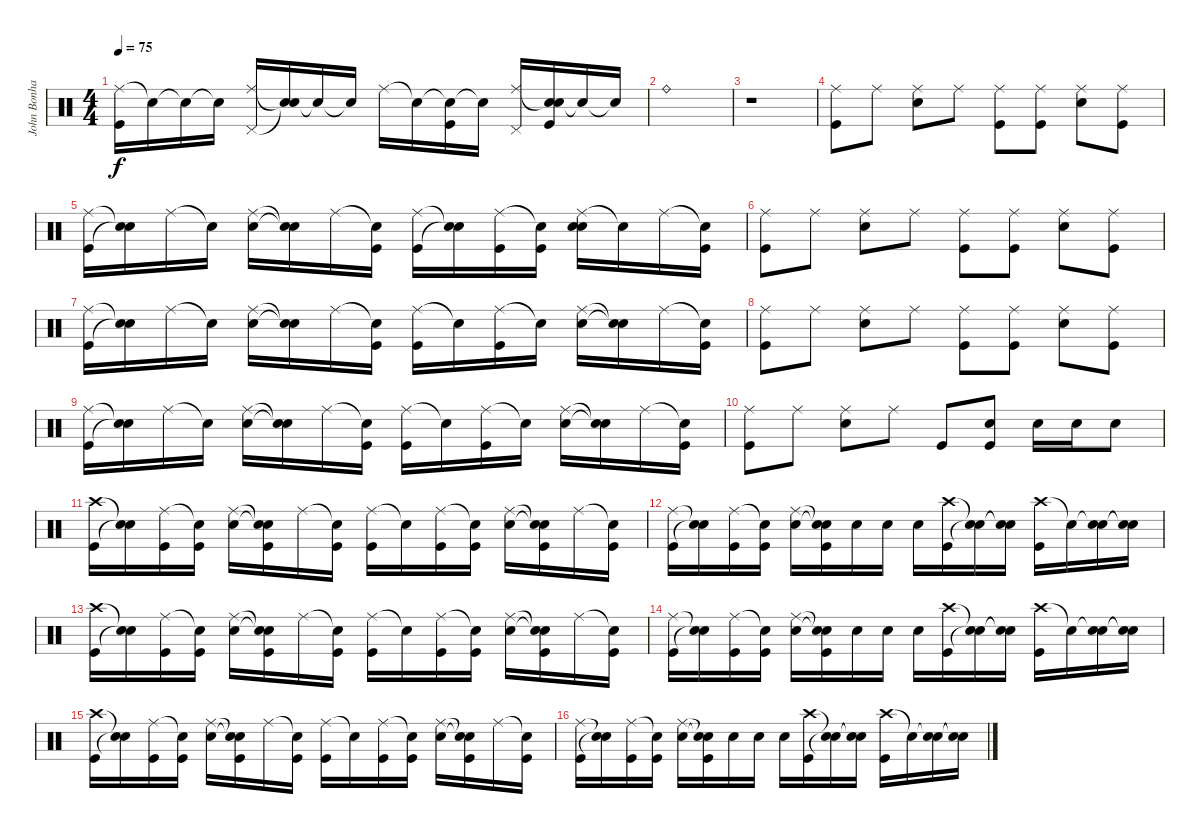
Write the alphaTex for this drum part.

\track ("John Bonham (Drums)" "John Bonha") {instrument percussion}
\staff {score}
\articulation defaults
\ts (4 4)
\tempo 75
\clef neutral
\ks c
("Ride (middle)" "Kick (hit)").16{dy f} "Snare (hit)"{t}.16 "Snare (hit)"{t}.16 "Snare (hit)"{t}.16 ("Ride (middle)" "Pedal Hi-Hat (hit)").16 ("Snare (hit)"{t} "Snare (hit)"{t}).16 "Snare (hit)"{t}.16 "Snare (hit)"{t}.16 "Ride (middle)".16 "Snare (hit)"{t}.16 ("Snare (hit)"{t} "Kick (hit)").16 "Snare (hit)"{t}.16 ("Ride (middle)" "Pedal Hi-Hat (hit)").16 ("Snare (hit)"{t} "Kick (hit)" "Snare (hit)").16 "Snare (hit)"{t}.16 "Snare (hit)"{t}.16 |
"Ride (bell)".1 |
r.1 |
("Ride (middle)" "Kick (hit)").8 "Ride (middle)".8 ("Ride (middle)" "Snare (hit) 2").8 "Ride (middle)".8 ("Ride (middle)" "Kick (hit)").8 ("Ride (middle)" "Kick (hit)").8 ("Ride (middle)" "Snare (hit) 2").8 ("Ride (middle)" "Kick (hit)").8 |
("Ride (middle)" "Kick (hit)").16 ("Snare (hit)"{t} "Snare (hit)"{t}).16 "Ride (middle)".16 "Snare (hit)"{t}.16 ("Ride (middle)" "Snare (hit) 2").16 ("Snare (hit)"{t} "Snare (hit)"{t}).16 "Ride (middle)".16 ("Snare (hit)"{t} "Kick (hit)").16 ("Ride (middle)" "Kick (hit)").16 ("Snare (hit)"{t} "Snare (hit)"{t}).16 ("Ride (middle)" "Kick (hit)").16 ("Snare (hit)"{t} "Kick (hit)").16 ("Ride (middle)" "Snare (hit) 2" "Snare (hit)").16 "Snare (hit)"{t}.16 "Ride (middle)".16 ("Snare (hit)"{t} "Kick (hit)").16 |
("Ride (middle)" "Kick (hit)").8 "Ride (middle)".8 ("Ride (middle)" "Snare (hit) 2").8 "Ride (middle)".8 ("Ride (middle)" "Kick (hit)").8 ("Ride (middle)" "Kick (hit)").8 ("Ride (middle)" "Snare (hit) 2").8 ("Ride (middle)" "Kick (hit)").8 |
("Ride (middle)" "Kick (hit)").16 ("Snare (hit)"{t} "Snare (hit)"{t}).16 "Ride (middle)".16 "Snare (hit)"{t}.16 ("Ride (middle)" "Snare (hit) 2").16 ("Snare (hit)"{t} "Snare (hit)"{t}).16 "Ride (middle)".16 ("Snare (hit)"{t} "Kick (hit)").16 ("Ride (middle)" "Kick (hit)").16 "Snare (hit)"{t}.16 ("Ride (middle)" "Kick (hit)").16 "Snare (hit)"{t}.16 ("Ride (middle)" "Snare (hit) 2").16 ("Snare (hit)"{t} "Snare (hit)"{t}).16 "Ride (middle)".16 ("Snare (hit)"{t} "Kick (hit)").16 |
("Ride (middle)" "Kick (hit)").8 "Ride (middle)".8 ("Ride (middle)" "Snare (hit) 2").8 "Ride (middle)".8 ("Ride (middle)" "Kick (hit)").8 ("Ride (middle)" "Kick (hit)").8 ("Ride (middle)" "Snare (hit) 2").8 ("Ride (middle)" "Kick (hit)").8 |
("Ride (middle)" "Kick (hit)").16 ("Snare (hit)"{t} "Snare (hit)"{t}).16 "Ride (middle)".16 "Snare (hit)"{t}.16 ("Ride (middle)" "Snare (hit) 2").16 ("Snare (hit)"{t} "Snare (hit)"{t}).16 "Ride (middle)".16 ("Snare (hit)"{t} "Kick (hit)").16 ("Ride (middle)" "Kick (hit)").16 "Snare (hit)"{t}.16 ("Ride (middle)" "Kick (hit)").16 "Snare (hit)"{t}.16 ("Ride (middle)" "Snare (hit) 2").16 ("Snare (hit)"{t} "Snare (hit)"{t}).16 "Ride (middle)".16 ("Snare (hit)"{t} "Kick (hit)").16 |
("Ride (middle)" "Kick (hit)").8 "Ride (middle)".8 ("Ride (middle)" "Snare (hit) 2").8 "Ride (middle)".8 "Kick (hit)".8 ("Snare (hit) 2" "Kick (hit)").8 "Snare (hit) 2".16 "Snare (hit) 2".16 "Snare (hit) 2".8 |
("Crash high (hit)" "Kick (hit)").16 ("Snare (hit)"{t} "Snare (hit)"{t}).16 ("Ride (middle)" "Kick (hit)").16 ("Snare (hit)"{t} "Kick (hit)").16 ("Ride (middle)" "Snare (hit) 2").16 ("Snare (hit)"{t} "Snare (hit)"{t} "Kick (hit)").16 "Ride (middle)".16 ("Snare (hit)"{t} "Kick (hit)").16 ("Ride (middle)" "Kick (hit)").16 "Snare (hit)"{t}.16 ("Ride (middle)" "Kick (hit)").16 ("Snare (hit)"{t} "Kick (hit)").16 ("Ride (middle)" "Snare (hit) 2").16 ("Snare (hit)"{t} "Snare (hit)"{t} "Kick (hit)").16 "Ride (middle)".16 ("Snare (hit)"{t} "Kick (hit)").16 |
("Ride (middle)" "Kick (hit)").16 ("Snare (hit)"{t} "Snare (hit)"{t}).16 ("Ride (middle)" "Kick (hit)").16 ("Snare (hit)"{t} "Kick (hit)").16 ("Ride (middle)" "Snare (hit) 2").16 ("Snare (hit)"{t} "Snare (hit) 2"{t} "Kick (hit)").16 "Snare (hit) 2".16 "Snare (hit) 2".16 "Snare (hit) 2".16 ("Crash high (hit)" "Kick (hit)").16 ("Snare (hit)"{t} "Snare (hit)"{t}).16 ("Snare (hit)"{t} "Snare (hit)"{t}).16 ("Crash high (hit)" "Kick (hit)").16 "Snare (hit)"{t}.16 ("Snare (hit)"{t} "Snare (hit) 2").16 ("Snare (hit)"{t} "Snare (hit)"{t}).16 |
("Crash high (hit)" "Kick (hit)").16 ("Snare (hit)"{t} "Snare (hit)"{t}).16 ("Ride (middle)" "Kick (hit)").16 ("Snare (hit)"{t} "Kick (hit)").16 ("Ride (middle)" "Snare (hit) 2").16 ("Snare (hit)"{t} "Snare (hit)"{t} "Kick (hit)").16 "Ride (middle)".16 ("Snare (hit)"{t} "Kick (hit)").16 ("Ride (middle)" "Kick (hit)").16 "Snare (hit)"{t}.16 ("Ride (middle)" "Kick (hit)").16 ("Snare (hit)"{t} "Kick (hit)").16 ("Ride (middle)" "Snare (hit) 2").16 ("Snare (hit)"{t} "Snare (hit)"{t} "Kick (hit)").16 "Ride (middle)".16 ("Snare (hit)"{t} "Kick (hit)").16 |
("Ride (middle)" "Kick (hit)").16 ("Snare (hit)"{t} "Snare (hit)"{t}).16 ("Ride (middle)" "Kick (hit)").16 ("Snare (hit)"{t} "Kick (hit)").16 ("Ride (middle)" "Snare (hit) 2").16 ("Snare (hit)"{t} "Snare (hit) 2"{t} "Kick (hit)").16 "Snare (hit) 2".16 "Snare (hit) 2".16 "Snare (hit) 2".16 ("Crash high (hit)" "Kick (hit)").16 ("Snare (hit)"{t} "Snare (hit)"{t}).16 ("Snare (hit)"{t} "Snare (hit)"{t}).16 ("Crash high (hit)" "Kick (hit)").16 "Snare (hit)"{t}.16 ("Snare (hit)"{t} "Snare (hit) 2").16 ("Snare (hit)"{t} "Snare (hit)"{t}).16 |
("Crash high (hit)" "Kick (hit)").16 ("Snare (hit)"{t} "Snare (hit)"{t}).16 ("Ride (middle)" "Kick (hit)").16 ("Snare (hit)"{t} "Kick (hit)").16 ("Ride (middle)" "Snare (hit) 2").16 ("Snare (hit)"{t} "Snare (hit)"{t} "Kick (hit)").16 "Ride (middle)".16 ("Snare (hit)"{t} "Kick (hit)").16 ("Ride (middle)" "Kick (hit)").16 "Snare (hit)"{t}.16 ("Ride (middle)" "Kick (hit)").16 ("Snare (hit)"{t} "Kick (hit)").16 ("Ride (middle)" "Snare (hit) 2").16 ("Snare (hit)"{t} "Snare (hit)"{t} "Kick (hit)").16 "Ride (middle)".16 ("Snare (hit)"{t} "Kick (hit)").16 |
("Ride (middle)" "Kick (hit)").16 ("Snare (hit)"{t} "Snare (hit)"{t}).16 ("Ride (middle)" "Kick (hit)").16 ("Snare (hit)"{t} "Kick (hit)").16 ("Ride (middle)" "Snare (hit) 2").16 ("Snare (hit)"{t} "Snare (hit) 2"{t} "Kick (hit)").16 "Snare (hit) 2".16 "Snare (hit) 2".16 "Snare (hit) 2".16 ("Crash high (hit)" "Kick (hit)").16 ("Snare (hit)"{t} "Snare (hit)"{t}).16 ("Snare (hit)"{t} "Snare (hit)"{t}).16 ("Crash high (hit)" "Kick (hit)").16 "Snare (hit)"{t}.16 ("Snare (hit)"{t} "Snare (hit) 2").16 ("Snare (hit)"{t} "Snare (hit)"{t}).16
